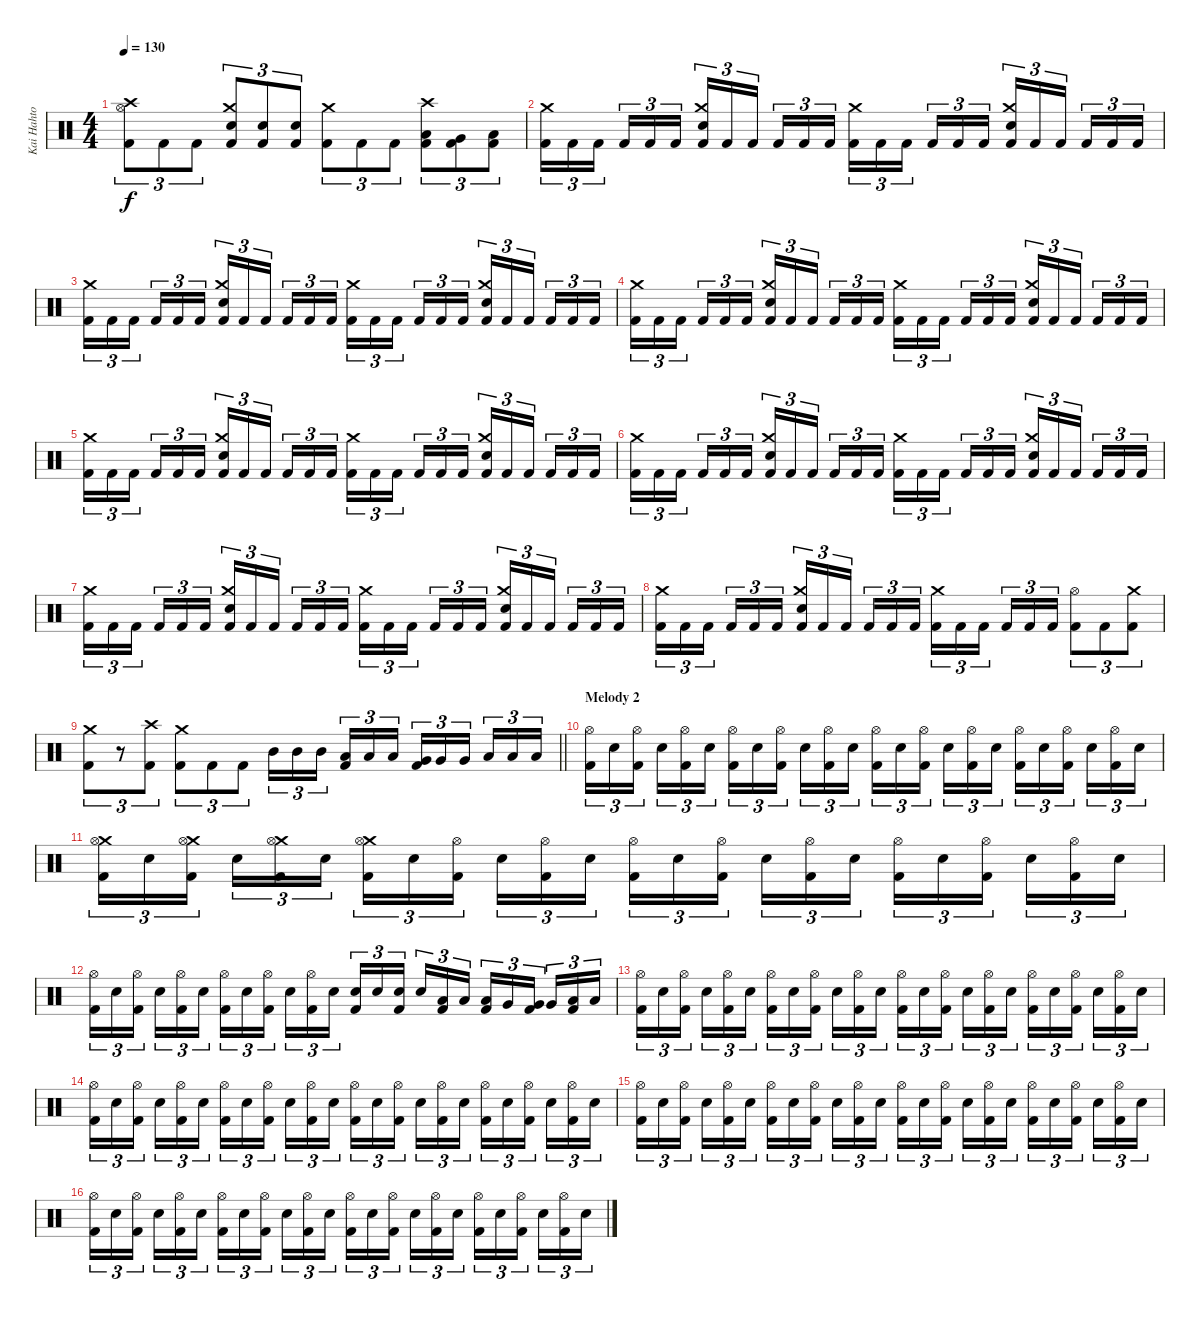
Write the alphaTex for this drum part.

\track ("Kai Hahto" "Kai Hahto") {instrument percussion}
\staff {score}
\articulation defaults
\ts (4 4)
\tempo 130
\clef neutral
\ks c
("Crash high (hit)" "Hi-Hat (open)" "Kick (hit) 2").8{tu (3 2) dy f} "Kick (hit) 2".8{tu (3 2)} "Kick (hit) 2".8{tu (3 2)} ("Crash medium (hit)" "Snare (hit) 2" "Kick (hit) 2").8{tu (3 2)} ("Snare (hit) 2" "Kick (hit) 2").8{tu (3 2)} ("Snare (hit) 2" "Kick (hit) 2").8{tu (3 2)} ("Crash medium (hit)" "Kick (hit) 2").8{tu (3 2)} "Kick (hit) 2".8{tu (3 2)} "Kick (hit) 2".8{tu (3 2)} ("Crash high (hit)" "Low Tom (hit)" "Kick (hit) 2").8{tu (3 2)} ("Very Low Tom (hit)" "Kick (hit) 2").8{tu (3 2)} ("Low Floor Tom (hit)" "Kick (hit) 2").8{tu (3 2)} |
("Crash medium (hit)" "Kick (hit) 2").16{tu (3 2)} "Kick (hit) 2".16{tu (3 2)} "Kick (hit) 2".16{tu (3 2) beam splitsecondary} "Kick (hit) 2".16{tu (3 2)} "Kick (hit) 2".16{tu (3 2)} "Kick (hit) 2".16{tu (3 2)} ("Crash medium (hit)" "Snare (hit) 2" "Kick (hit) 2").16{tu (3 2)} "Kick (hit) 2".16{tu (3 2)} "Kick (hit) 2".16{tu (3 2) beam splitsecondary} "Kick (hit) 2".16{tu (3 2)} "Kick (hit) 2".16{tu (3 2)} "Kick (hit) 2".16{tu (3 2)} ("Crash medium (hit)" "Kick (hit) 2").16{tu (3 2)} "Kick (hit) 2".16{tu (3 2)} "Kick (hit) 2".16{tu (3 2) beam splitsecondary} "Kick (hit) 2".16{tu (3 2)} "Kick (hit) 2".16{tu (3 2)} "Kick (hit) 2".16{tu (3 2)} ("Crash medium (hit)" "Snare (hit) 2" "Kick (hit) 2").16{tu (3 2)} "Kick (hit) 2".16{tu (3 2)} "Kick (hit) 2".16{tu (3 2) beam splitsecondary} "Kick (hit) 2".16{tu (3 2)} "Kick (hit) 2".16{tu (3 2)} "Kick (hit) 2".16{tu (3 2)} |
("Crash medium (hit)" "Kick (hit) 2").16{tu (3 2)} "Kick (hit) 2".16{tu (3 2)} "Kick (hit) 2".16{tu (3 2) beam splitsecondary} "Kick (hit) 2".16{tu (3 2)} "Kick (hit) 2".16{tu (3 2)} "Kick (hit) 2".16{tu (3 2)} ("Crash medium (hit)" "Snare (hit) 2" "Kick (hit) 2").16{tu (3 2)} "Kick (hit) 2".16{tu (3 2)} "Kick (hit) 2".16{tu (3 2) beam splitsecondary} "Kick (hit) 2".16{tu (3 2)} "Kick (hit) 2".16{tu (3 2)} "Kick (hit) 2".16{tu (3 2)} ("Crash medium (hit)" "Kick (hit) 2").16{tu (3 2)} "Kick (hit) 2".16{tu (3 2)} "Kick (hit) 2".16{tu (3 2) beam splitsecondary} "Kick (hit) 2".16{tu (3 2)} "Kick (hit) 2".16{tu (3 2)} "Kick (hit) 2".16{tu (3 2)} ("Crash medium (hit)" "Snare (hit) 2" "Kick (hit) 2").16{tu (3 2)} "Kick (hit) 2".16{tu (3 2)} "Kick (hit) 2".16{tu (3 2) beam splitsecondary} "Kick (hit) 2".16{tu (3 2)} "Kick (hit) 2".16{tu (3 2)} "Kick (hit) 2".16{tu (3 2)} |
("Crash medium (hit)" "Kick (hit) 2").16{tu (3 2)} "Kick (hit) 2".16{tu (3 2)} "Kick (hit) 2".16{tu (3 2) beam splitsecondary} "Kick (hit) 2".16{tu (3 2)} "Kick (hit) 2".16{tu (3 2)} "Kick (hit) 2".16{tu (3 2)} ("Crash medium (hit)" "Snare (hit) 2" "Kick (hit) 2").16{tu (3 2)} "Kick (hit) 2".16{tu (3 2)} "Kick (hit) 2".16{tu (3 2) beam splitsecondary} "Kick (hit) 2".16{tu (3 2)} "Kick (hit) 2".16{tu (3 2)} "Kick (hit) 2".16{tu (3 2)} ("Crash medium (hit)" "Kick (hit) 2").16{tu (3 2)} "Kick (hit) 2".16{tu (3 2)} "Kick (hit) 2".16{tu (3 2) beam splitsecondary} "Kick (hit) 2".16{tu (3 2)} "Kick (hit) 2".16{tu (3 2)} "Kick (hit) 2".16{tu (3 2)} ("Crash medium (hit)" "Snare (hit) 2" "Kick (hit) 2").16{tu (3 2)} "Kick (hit) 2".16{tu (3 2)} "Kick (hit) 2".16{tu (3 2) beam splitsecondary} "Kick (hit) 2".16{tu (3 2)} "Kick (hit) 2".16{tu (3 2)} "Kick (hit) 2".16{tu (3 2)} |
("Crash medium (hit)" "Kick (hit) 2").16{tu (3 2)} "Kick (hit) 2".16{tu (3 2)} "Kick (hit) 2".16{tu (3 2) beam splitsecondary} "Kick (hit) 2".16{tu (3 2)} "Kick (hit) 2".16{tu (3 2)} "Kick (hit) 2".16{tu (3 2)} ("Crash medium (hit)" "Snare (hit) 2" "Kick (hit) 2").16{tu (3 2)} "Kick (hit) 2".16{tu (3 2)} "Kick (hit) 2".16{tu (3 2) beam splitsecondary} "Kick (hit) 2".16{tu (3 2)} "Kick (hit) 2".16{tu (3 2)} "Kick (hit) 2".16{tu (3 2)} ("Crash medium (hit)" "Kick (hit) 2").16{tu (3 2)} "Kick (hit) 2".16{tu (3 2)} "Kick (hit) 2".16{tu (3 2) beam splitsecondary} "Kick (hit) 2".16{tu (3 2)} "Kick (hit) 2".16{tu (3 2)} "Kick (hit) 2".16{tu (3 2)} ("Crash medium (hit)" "Snare (hit) 2" "Kick (hit) 2").16{tu (3 2)} "Kick (hit) 2".16{tu (3 2)} "Kick (hit) 2".16{tu (3 2) beam splitsecondary} "Kick (hit) 2".16{tu (3 2)} "Kick (hit) 2".16{tu (3 2)} "Kick (hit) 2".16{tu (3 2)} |
("Crash medium (hit)" "Kick (hit) 2").16{tu (3 2)} "Kick (hit) 2".16{tu (3 2)} "Kick (hit) 2".16{tu (3 2) beam splitsecondary} "Kick (hit) 2".16{tu (3 2)} "Kick (hit) 2".16{tu (3 2)} "Kick (hit) 2".16{tu (3 2)} ("Crash medium (hit)" "Snare (hit) 2" "Kick (hit) 2").16{tu (3 2)} "Kick (hit) 2".16{tu (3 2)} "Kick (hit) 2".16{tu (3 2) beam splitsecondary} "Kick (hit) 2".16{tu (3 2)} "Kick (hit) 2".16{tu (3 2)} "Kick (hit) 2".16{tu (3 2)} ("Crash medium (hit)" "Kick (hit) 2").16{tu (3 2)} "Kick (hit) 2".16{tu (3 2)} "Kick (hit) 2".16{tu (3 2) beam splitsecondary} "Kick (hit) 2".16{tu (3 2)} "Kick (hit) 2".16{tu (3 2)} "Kick (hit) 2".16{tu (3 2)} ("Crash medium (hit)" "Snare (hit) 2" "Kick (hit) 2").16{tu (3 2)} "Kick (hit) 2".16{tu (3 2)} "Kick (hit) 2".16{tu (3 2) beam splitsecondary} "Kick (hit) 2".16{tu (3 2)} "Kick (hit) 2".16{tu (3 2)} "Kick (hit) 2".16{tu (3 2)} |
("Crash medium (hit)" "Kick (hit) 2").16{tu (3 2)} "Kick (hit) 2".16{tu (3 2)} "Kick (hit) 2".16{tu (3 2) beam splitsecondary} "Kick (hit) 2".16{tu (3 2)} "Kick (hit) 2".16{tu (3 2)} "Kick (hit) 2".16{tu (3 2)} ("Crash medium (hit)" "Snare (hit) 2" "Kick (hit) 2").16{tu (3 2)} "Kick (hit) 2".16{tu (3 2)} "Kick (hit) 2".16{tu (3 2) beam splitsecondary} "Kick (hit) 2".16{tu (3 2)} "Kick (hit) 2".16{tu (3 2)} "Kick (hit) 2".16{tu (3 2)} ("Crash medium (hit)" "Kick (hit) 2").16{tu (3 2)} "Kick (hit) 2".16{tu (3 2)} "Kick (hit) 2".16{tu (3 2) beam splitsecondary} "Kick (hit) 2".16{tu (3 2)} "Kick (hit) 2".16{tu (3 2)} "Kick (hit) 2".16{tu (3 2)} ("Crash medium (hit)" "Snare (hit) 2" "Kick (hit) 2").16{tu (3 2)} "Kick (hit) 2".16{tu (3 2)} "Kick (hit) 2".16{tu (3 2) beam splitsecondary} "Kick (hit) 2".16{tu (3 2)} "Kick (hit) 2".16{tu (3 2)} "Kick (hit) 2".16{tu (3 2)} |
("Crash medium (hit)" "Kick (hit) 2").16{tu (3 2)} "Kick (hit) 2".16{tu (3 2)} "Kick (hit) 2".16{tu (3 2) beam splitsecondary} "Kick (hit) 2".16{tu (3 2)} "Kick (hit) 2".16{tu (3 2)} "Kick (hit) 2".16{tu (3 2)} ("Crash medium (hit)" "Snare (hit) 2" "Kick (hit) 2").16{tu (3 2)} "Kick (hit) 2".16{tu (3 2)} "Kick (hit) 2".16{tu (3 2) beam splitsecondary} "Kick (hit) 2".16{tu (3 2)} "Kick (hit) 2".16{tu (3 2)} "Kick (hit) 2".16{tu (3 2)} ("Crash medium (hit)" "Kick (hit) 2").16{tu (3 2)} "Kick (hit) 2".16{tu (3 2)} "Kick (hit) 2".16{tu (3 2) beam splitsecondary} "Kick (hit) 2".16{tu (3 2)} "Kick (hit) 2".16{tu (3 2)} "Kick (hit) 2".16{tu (3 2)} ("Hi-Hat (open)" "Kick (hit) 2").8{tu (3 2)} "Kick (hit) 2".8{tu (3 2)} ("Crash medium (hit)" "Kick (hit) 2").8{tu (3 2)} |
\barLineRight lightlight
("Crash medium (hit)" "Kick (hit) 2").8{tu (3 2)} r.8{tu (3 2)} ("Crash high (hit)" "Kick (hit) 2").8{tu (3 2)} ("Crash medium (hit)" "Kick (hit) 2").8{tu (3 2)} "Kick (hit) 2".8{tu (3 2)} "Kick (hit) 2".8{tu (3 2)} "Mid Tom (hit)".16{tu (3 2)} "Mid Tom (hit)".16{tu (3 2)} "Mid Tom (hit)".16{tu (3 2) beam splitsecondary} ("Low Tom (hit)" "Kick (hit) 2").16{tu (3 2)} "Low Tom (hit)".16{tu (3 2)} "Low Tom (hit)".16{tu (3 2)} ("Very Low Tom (hit)" "Kick (hit) 2").16{tu (3 2)} "Very Low Tom (hit)".16{tu (3 2)} "Very Low Tom (hit)".16{tu (3 2) beam splitsecondary} "Low Floor Tom (hit)".16{tu (3 2)} "Low Floor Tom (hit)".16{tu (3 2)} "Low Floor Tom (hit)".16{tu (3 2)} |
\section ("" "Melody 2")
("Hi-Hat (open)" "Kick (hit) 2").16{tu (3 2)} "Snare (hit) 2".16{tu (3 2)} ("Hi-Hat (open)" "Kick (hit) 2").16{tu (3 2) beam splitsecondary} "Snare (hit) 2".16{tu (3 2)} ("Hi-Hat (open)" "Kick (hit) 2").16{tu (3 2)} "Snare (hit) 2".16{tu (3 2)} ("Hi-Hat (open)" "Kick (hit) 2").16{tu (3 2)} "Snare (hit) 2".16{tu (3 2)} ("Hi-Hat (open)" "Kick (hit) 2").16{tu (3 2) beam splitsecondary} "Snare (hit) 2".16{tu (3 2)} ("Hi-Hat (open)" "Kick (hit) 2").16{tu (3 2)} "Snare (hit) 2".16{tu (3 2)} ("Hi-Hat (open)" "Kick (hit) 2").16{tu (3 2)} "Snare (hit) 2".16{tu (3 2)} ("Hi-Hat (open)" "Kick (hit) 2").16{tu (3 2) beam splitsecondary} "Snare (hit) 2".16{tu (3 2)} ("Hi-Hat (open)" "Kick (hit) 2").16{tu (3 2)} "Snare (hit) 2".16{tu (3 2)} ("Hi-Hat (open)" "Kick (hit) 2").16{tu (3 2)} "Snare (hit) 2".16{tu (3 2)} ("Hi-Hat (open)" "Kick (hit) 2").16{tu (3 2) beam splitsecondary} "Snare (hit) 2".16{tu (3 2)} ("Hi-Hat (open)" "Kick (hit) 2").16{tu (3 2)} "Snare (hit) 2".16{tu (3 2)} |
("Crash medium (hit)" "Hi-Hat (open)" "Kick (hit) 2").16{tu (3 2)} "Snare (hit) 2".16{tu (3 2)} ("Crash medium (hit)" "Hi-Hat (open)" "Kick (hit) 2").16{tu (3 2) beam splitsecondary} "Snare (hit) 2".16{tu (3 2)} ("Crash medium (hit)" "Hi-Hat (open)" "Kick (hit) 2").16{tu (3 2)} "Snare (hit) 2".16{tu (3 2)} ("Crash medium (hit)" "Hi-Hat (open)" "Kick (hit) 2").16{tu (3 2)} "Snare (hit) 2".16{tu (3 2)} ("Hi-Hat (open)" "Kick (hit) 2").16{tu (3 2) beam splitsecondary} "Snare (hit) 2".16{tu (3 2)} ("Hi-Hat (open)" "Kick (hit) 2").16{tu (3 2)} "Snare (hit) 2".16{tu (3 2)} ("Hi-Hat (open)" "Kick (hit) 2").16{tu (3 2)} "Snare (hit) 2".16{tu (3 2)} ("Hi-Hat (open)" "Kick (hit) 2").16{tu (3 2) beam splitsecondary} "Snare (hit) 2".16{tu (3 2)} ("Hi-Hat (open)" "Kick (hit) 2").16{tu (3 2)} "Snare (hit) 2".16{tu (3 2)} ("Hi-Hat (open)" "Kick (hit) 2").16{tu (3 2)} "Snare (hit) 2".16{tu (3 2)} ("Hi-Hat (open)" "Kick (hit) 2").16{tu (3 2) beam splitsecondary} "Snare (hit) 2".16{tu (3 2)} ("Hi-Hat (open)" "Kick (hit) 2").16{tu (3 2)} "Snare (hit) 2".16{tu (3 2)} |
("Hi-Hat (open)" "Kick (hit) 2").16{tu (3 2)} "Snare (hit) 2".16{tu (3 2)} ("Hi-Hat (open)" "Kick (hit) 2").16{tu (3 2) beam splitsecondary} "Snare (hit) 2".16{tu (3 2)} ("Hi-Hat (open)" "Kick (hit) 2").16{tu (3 2)} "Snare (hit) 2".16{tu (3 2)} ("Hi-Hat (open)" "Kick (hit) 2").16{tu (3 2)} "Snare (hit) 2".16{tu (3 2)} ("Hi-Hat (open)" "Kick (hit) 2").16{tu (3 2) beam splitsecondary} "Snare (hit) 2".16{tu (3 2)} ("Hi-Hat (open)" "Kick (hit) 2").16{tu (3 2)} "Snare (hit) 2".16{tu (3 2)} ("Snare (hit) 2" "Kick (hit) 2").16{tu (3 2)} "Snare (hit) 2".16{tu (3 2)} ("Snare (hit) 2" "Kick (hit) 2").16{tu (3 2) beam splitsecondary} "Snare (hit) 2".16{tu (3 2)} ("Low Tom (hit)" "Kick (hit) 2").16{tu (3 2)} "Low Tom (hit)".16{tu (3 2)} ("Low Tom (hit)" "Kick (hit) 2").16{tu (3 2)} "Very Low Tom (hit)".16{tu (3 2)} ("Very Low Tom (hit)" "Kick (hit) 2").16{tu (3 2) beam splitsecondary} "Very Low Tom (hit)".16{tu (3 2)} ("Low Floor Tom (hit)" "Kick (hit) 2").16{tu (3 2)} "Low Floor Tom (hit)".16{tu (3 2)} |
("Hi-Hat (open)" "Kick (hit) 2").16{tu (3 2)} "Snare (hit) 2".16{tu (3 2)} ("Hi-Hat (open)" "Kick (hit) 2").16{tu (3 2) beam splitsecondary} "Snare (hit) 2".16{tu (3 2)} ("Hi-Hat (open)" "Kick (hit) 2").16{tu (3 2)} "Snare (hit) 2".16{tu (3 2)} ("Hi-Hat (open)" "Kick (hit) 2").16{tu (3 2)} "Snare (hit) 2".16{tu (3 2)} ("Hi-Hat (open)" "Kick (hit) 2").16{tu (3 2) beam splitsecondary} "Snare (hit) 2".16{tu (3 2)} ("Hi-Hat (open)" "Kick (hit) 2").16{tu (3 2)} "Snare (hit) 2".16{tu (3 2)} ("Hi-Hat (open)" "Kick (hit) 2").16{tu (3 2)} "Snare (hit) 2".16{tu (3 2)} ("Hi-Hat (open)" "Kick (hit) 2").16{tu (3 2) beam splitsecondary} "Snare (hit) 2".16{tu (3 2)} ("Hi-Hat (open)" "Kick (hit) 2").16{tu (3 2)} "Snare (hit) 2".16{tu (3 2)} ("Hi-Hat (open)" "Kick (hit) 2").16{tu (3 2)} "Snare (hit) 2".16{tu (3 2)} ("Hi-Hat (open)" "Kick (hit) 2").16{tu (3 2) beam splitsecondary} "Snare (hit) 2".16{tu (3 2)} ("Hi-Hat (open)" "Kick (hit) 2").16{tu (3 2)} "Snare (hit) 2".16{tu (3 2)} |
("Hi-Hat (open)" "Kick (hit) 2").16{tu (3 2)} "Snare (hit) 2".16{tu (3 2)} ("Hi-Hat (open)" "Kick (hit) 2").16{tu (3 2) beam splitsecondary} "Snare (hit) 2".16{tu (3 2)} ("Hi-Hat (open)" "Kick (hit) 2").16{tu (3 2)} "Snare (hit) 2".16{tu (3 2)} ("Hi-Hat (open)" "Kick (hit) 2").16{tu (3 2)} "Snare (hit) 2".16{tu (3 2)} ("Hi-Hat (open)" "Kick (hit) 2").16{tu (3 2) beam splitsecondary} "Snare (hit) 2".16{tu (3 2)} ("Hi-Hat (open)" "Kick (hit) 2").16{tu (3 2)} "Snare (hit) 2".16{tu (3 2)} ("Hi-Hat (open)" "Kick (hit) 2").16{tu (3 2)} "Snare (hit) 2".16{tu (3 2)} ("Hi-Hat (open)" "Kick (hit) 2").16{tu (3 2) beam splitsecondary} "Snare (hit) 2".16{tu (3 2)} ("Hi-Hat (open)" "Kick (hit) 2").16{tu (3 2)} "Snare (hit) 2".16{tu (3 2)} ("Hi-Hat (open)" "Kick (hit) 2").16{tu (3 2)} "Snare (hit) 2".16{tu (3 2)} ("Hi-Hat (open)" "Kick (hit) 2").16{tu (3 2) beam splitsecondary} "Snare (hit) 2".16{tu (3 2)} ("Hi-Hat (open)" "Kick (hit) 2").16{tu (3 2)} "Snare (hit) 2".16{tu (3 2)} |
("Hi-Hat (open)" "Kick (hit) 2").16{tu (3 2)} "Snare (hit) 2".16{tu (3 2)} ("Hi-Hat (open)" "Kick (hit) 2").16{tu (3 2) beam splitsecondary} "Snare (hit) 2".16{tu (3 2)} ("Hi-Hat (open)" "Kick (hit) 2").16{tu (3 2)} "Snare (hit) 2".16{tu (3 2)} ("Hi-Hat (open)" "Kick (hit) 2").16{tu (3 2)} "Snare (hit) 2".16{tu (3 2)} ("Hi-Hat (open)" "Kick (hit) 2").16{tu (3 2) beam splitsecondary} "Snare (hit) 2".16{tu (3 2)} ("Hi-Hat (open)" "Kick (hit) 2").16{tu (3 2)} "Snare (hit) 2".16{tu (3 2)} ("Hi-Hat (open)" "Kick (hit) 2").16{tu (3 2)} "Snare (hit) 2".16{tu (3 2)} ("Hi-Hat (open)" "Kick (hit) 2").16{tu (3 2) beam splitsecondary} "Snare (hit) 2".16{tu (3 2)} ("Hi-Hat (open)" "Kick (hit) 2").16{tu (3 2)} "Snare (hit) 2".16{tu (3 2)} ("Hi-Hat (open)" "Kick (hit) 2").16{tu (3 2)} "Snare (hit) 2".16{tu (3 2)} ("Hi-Hat (open)" "Kick (hit) 2").16{tu (3 2) beam splitsecondary} "Snare (hit) 2".16{tu (3 2)} ("Hi-Hat (open)" "Kick (hit) 2").16{tu (3 2)} "Snare (hit) 2".16{tu (3 2)} |
("Hi-Hat (open)" "Kick (hit) 2").16{tu (3 2)} "Snare (hit) 2".16{tu (3 2)} ("Hi-Hat (open)" "Kick (hit) 2").16{tu (3 2) beam splitsecondary} "Snare (hit) 2".16{tu (3 2)} ("Hi-Hat (open)" "Kick (hit) 2").16{tu (3 2)} "Snare (hit) 2".16{tu (3 2)} ("Hi-Hat (open)" "Kick (hit) 2").16{tu (3 2)} "Snare (hit) 2".16{tu (3 2)} ("Hi-Hat (open)" "Kick (hit) 2").16{tu (3 2) beam splitsecondary} "Snare (hit) 2".16{tu (3 2)} ("Hi-Hat (open)" "Kick (hit) 2").16{tu (3 2)} "Snare (hit) 2".16{tu (3 2)} ("Hi-Hat (open)" "Kick (hit) 2").16{tu (3 2)} "Snare (hit) 2".16{tu (3 2)} ("Hi-Hat (open)" "Kick (hit) 2").16{tu (3 2) beam splitsecondary} "Snare (hit) 2".16{tu (3 2)} ("Hi-Hat (open)" "Kick (hit) 2").16{tu (3 2)} "Snare (hit) 2".16{tu (3 2)} ("Hi-Hat (open)" "Kick (hit) 2").16{tu (3 2)} "Snare (hit) 2".16{tu (3 2)} ("Hi-Hat (open)" "Kick (hit) 2").16{tu (3 2) beam splitsecondary} "Snare (hit) 2".16{tu (3 2)} ("Hi-Hat (open)" "Kick (hit) 2").16{tu (3 2)} "Snare (hit) 2".16{tu (3 2)}
